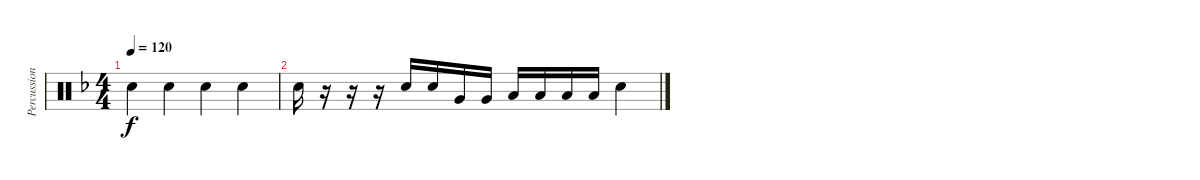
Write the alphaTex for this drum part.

\track ("Percussion" "Percussion") {instrument percussion}
\staff {score}
\articulation defaults
\ts (4 4)
\tempo 120
\clef neutral
\ks f "Electric Snare (hit)".4{dy f} "Electric Snare (hit)".4 "Electric Snare (hit)".4 "Electric Snare (hit)".4
|
"Electric Snare (hit)".16 r.16 r.16 r.16 "Electric Snare (hit)".16 "Electric Snare (hit)".16 "Very Low Tom (hit)".16 "Very Low Tom (hit)".16 "Low Floor Tom (hit)".16 "Low Floor Tom (hit)".16 "Low Floor Tom (hit)".16 "Low Floor Tom (hit)".16 "Electric Snare (hit)".4
